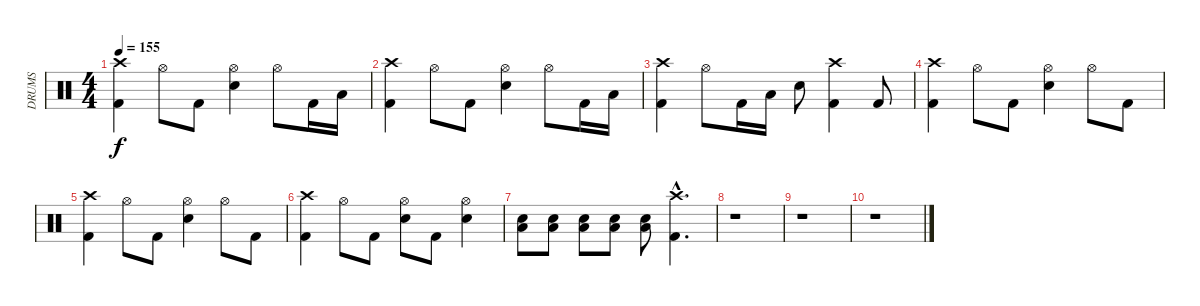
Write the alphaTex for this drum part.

\track ("DRUMS" "DRUMS") {instrument percussion}
\staff {score}
\articulation defaults
\ts (4 4)
\tempo 155
\clef neutral
\ks c
("Crash high (hit)" "Kick (hit) 2").4{dy f} "Hi-Hat (open)".8 "Kick (hit) 2".8 ("Hi-Hat (open)" "Electric Snare (hit)").4 "Hi-Hat (open)".8 "Kick (hit) 2".16 "Low Floor Tom (hit)".16 |
("Crash high (hit)" "Kick (hit) 2").4 "Hi-Hat (open)".8 "Kick (hit) 2".8 ("Hi-Hat (open)" "Electric Snare (hit)").4 "Hi-Hat (open)".8 "Kick (hit) 2".16 "Low Floor Tom (hit)".16 |
("Crash high (hit)" "Kick (hit) 2").4 "Hi-Hat (open)".8 "Kick (hit) 2".16 "Low Floor Tom (hit)".16 "Electric Snare (hit)".8 ("Crash high (hit)" "Kick (hit) 2").4 "Kick (hit) 2".8 |
("Crash high (hit)" "Kick (hit) 2").4 "Hi-Hat (open)".8 "Kick (hit) 2".8 ("Hi-Hat (open)" "Electric Snare (hit)").4 "Hi-Hat (open)".8 "Kick (hit) 2".8 |
("Crash high (hit)" "Kick (hit) 2").4 "Hi-Hat (open)".8 "Kick (hit) 2".8 ("Hi-Hat (open)" "Electric Snare (hit)").4 "Hi-Hat (open)".8 "Kick (hit) 2".8 |
("Crash high (hit)" "Kick (hit) 2").4 "Hi-Hat (open)".8 "Kick (hit) 2".8 ("Hi-Hat (open)" "Electric Snare (hit)").8 "Kick (hit) 2".8 ("Hi-Hat (open)" "Electric Snare (hit)").4 |
("Low Floor Tom (hit)" "Electric Snare (hit)").8 ("Low Floor Tom (hit)" "Electric Snare (hit)").8 ("Low Floor Tom (hit)" "Electric Snare (hit)").8 ("Low Floor Tom (hit)" "Electric Snare (hit)").8 ("Low Floor Tom (hit)" "Electric Snare (hit)").8 ("Crash high (hit)"{hac} "Kick (hit) 2"{hac}).4{d} |
r.1 |
r.1 |
r.1
